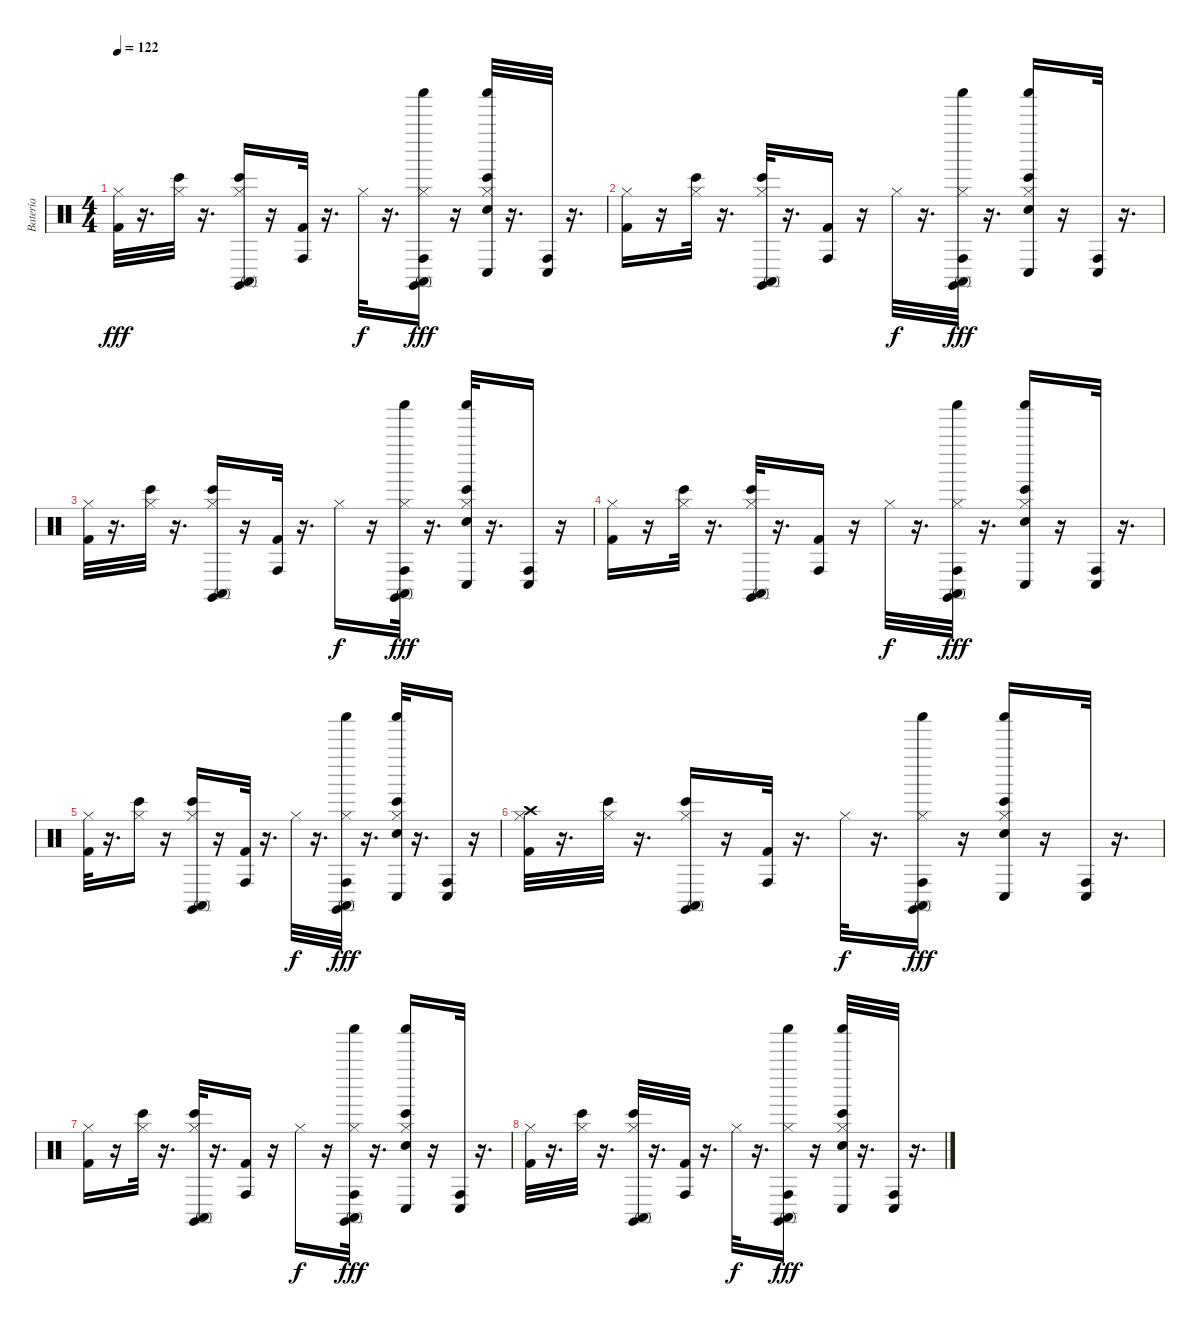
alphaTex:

\track ("Batería" "Batería") {instrument percussion}
\staff {score}
\articulation defaults
\ts (4 4)
\tempo 122
\clef neutral
\ks c
("Hi-Hat (closed)" "Kick (hit) 2").32{dy fff} r.16{d} ("Bongo High (hit)" "Hi-Hat (closed)").32 r.16{d} ("Claves (hit)" "Bongo High (hit)" "Conga high (mute)" "Hi-Hat (closed)").16 r.16 ("Conga high (hit)" "Kick (hit) 2").32 r.16{d} "Hi-Hat (closed)".32{dy f} r.16{d} ("Claves (hit)" "Conga high (hit)" "Conga high (mute)" "Shaker (hit)" "Hi-Hat (closed)").16{dy fff} r.16 ("Snare (hit) 2" "Bongo High (hit)" "Conga low (hit)" "Shaker (hit)" "Hi-Hat (closed)").32 r.16{d} ("Conga high (hit)" "Conga low (hit)").32 r.16{d} |
("Hi-Hat (closed)" "Kick (hit) 2").16 r.16 ("Bongo High (hit)" "Hi-Hat (closed)").32 r.16{d} ("Claves (hit)" "Bongo High (hit)" "Conga high (mute)" "Hi-Hat (closed)").32 r.16{d} ("Conga high (hit)" "Kick (hit) 2").16 r.16 "Hi-Hat (closed)".32{dy f} r.16{d} ("Claves (hit)" "Conga high (hit)" "Conga high (mute)" "Shaker (hit)" "Hi-Hat (closed)").32{dy fff} r.16{d} ("Snare (hit) 2" "Bongo High (hit)" "Conga low (hit)" "Shaker (hit)" "Hi-Hat (closed)").16 r.16 ("Conga high (hit)" "Conga low (hit)").32 r.16{d} |
("Hi-Hat (closed)" "Kick (hit) 2").32 r.16{d} ("Bongo High (hit)" "Hi-Hat (closed)").32 r.16{d} ("Claves (hit)" "Bongo High (hit)" "Conga high (mute)" "Hi-Hat (closed)").16 r.16 ("Conga high (hit)" "Kick (hit) 2").32 r.16{d} "Hi-Hat (closed)".16{dy f} r.16 ("Claves (hit)" "Conga high (hit)" "Conga high (mute)" "Shaker (hit)" "Hi-Hat (closed)").32{dy fff} r.16{d} ("Snare (hit) 2" "Bongo High (hit)" "Conga low (hit)" "Shaker (hit)" "Hi-Hat (closed)").32 r.16{d} ("Conga high (hit)" "Conga low (hit)").16 r.16 |
("Hi-Hat (closed)" "Kick (hit) 2").16 r.16 ("Bongo High (hit)" "Hi-Hat (closed)").32 r.16{d} ("Claves (hit)" "Bongo High (hit)" "Conga high (mute)" "Hi-Hat (closed)").32 r.16{d} ("Conga high (hit)" "Kick (hit) 2").16 r.16 "Hi-Hat (closed)".32{dy f} r.16{d} ("Claves (hit)" "Conga high (hit)" "Conga high (mute)" "Shaker (hit)" "Hi-Hat (closed)").32{dy fff} r.16{d} ("Snare (hit) 2" "Bongo High (hit)" "Conga low (hit)" "Shaker (hit)" "Hi-Hat (closed)").16 r.16 ("Conga high (hit)" "Conga low (hit)").32 r.16{d} |
("Hi-Hat (closed)" "Kick (hit) 2").32 r.16{d} ("Bongo High (hit)" "Hi-Hat (closed)").16 r.16 ("Claves (hit)" "Bongo High (hit)" "Conga high (mute)" "Hi-Hat (closed)").16 r.16 ("Conga high (hit)" "Kick (hit) 2").32 r.16{d} "Hi-Hat (closed)".32{dy f} r.16{d} ("Claves (hit)" "Conga high (hit)" "Conga high (mute)" "Shaker (hit)" "Hi-Hat (closed)").32{dy fff} r.16{d} ("Snare (hit) 2" "Bongo High (hit)" "Conga low (hit)" "Shaker (hit)" "Hi-Hat (closed)").32 r.16{d} ("Conga high (hit)" "Conga low (hit)").16 r.16 |
("Hi-Hat (closed)" "Kick (hit) 2" "Crash high (hit)").32 r.16{d} ("Bongo High (hit)" "Hi-Hat (closed)").32 r.16{d} ("Claves (hit)" "Bongo High (hit)" "Conga high (mute)" "Hi-Hat (closed)").16 r.16 ("Conga high (hit)" "Kick (hit) 2").32 r.16{d} "Hi-Hat (closed)".32{dy f} r.16{d} ("Claves (hit)" "Conga high (hit)" "Conga high (mute)" "Shaker (hit)" "Hi-Hat (closed)").16{dy fff} r.16 ("Snare (hit) 2" "Bongo High (hit)" "Conga low (hit)" "Shaker (hit)" "Hi-Hat (closed)").16 r.16 ("Conga high (hit)" "Conga low (hit)").32 r.16{d} |
("Hi-Hat (closed)" "Kick (hit) 2").16 r.16 ("Bongo High (hit)" "Hi-Hat (closed)").32 r.16{d} ("Claves (hit)" "Bongo High (hit)" "Conga high (mute)" "Hi-Hat (closed)").32 r.16{d} ("Conga high (hit)" "Kick (hit) 2").16 r.16 "Hi-Hat (closed)".16{dy f} r.16 ("Claves (hit)" "Conga high (hit)" "Conga high (mute)" "Shaker (hit)" "Hi-Hat (closed)").32{dy fff} r.16{d} ("Snare (hit) 2" "Bongo High (hit)" "Conga low (hit)" "Shaker (hit)" "Hi-Hat (closed)").16 r.16 ("Conga high (hit)" "Conga low (hit)").32 r.16{d} |
("Hi-Hat (closed)" "Kick (hit) 2").32 r.16{d} ("Bongo High (hit)" "Hi-Hat (closed)").32 r.16{d} ("Claves (hit)" "Bongo High (hit)" "Conga high (mute)" "Hi-Hat (closed)").32 r.16{d} ("Conga high (hit)" "Kick (hit) 2").32 r.16{d} "Hi-Hat (closed)".32{dy f} r.16{d} ("Claves (hit)" "Conga high (hit)" "Conga high (mute)" "Shaker (hit)" "Hi-Hat (closed)").16{dy fff} r.16 ("Snare (hit) 2" "Bongo High (hit)" "Conga low (hit)" "Shaker (hit)" "Hi-Hat (closed)").32 r.16{d} ("Conga high (hit)" "Conga low (hit)").32 r.16{d}
